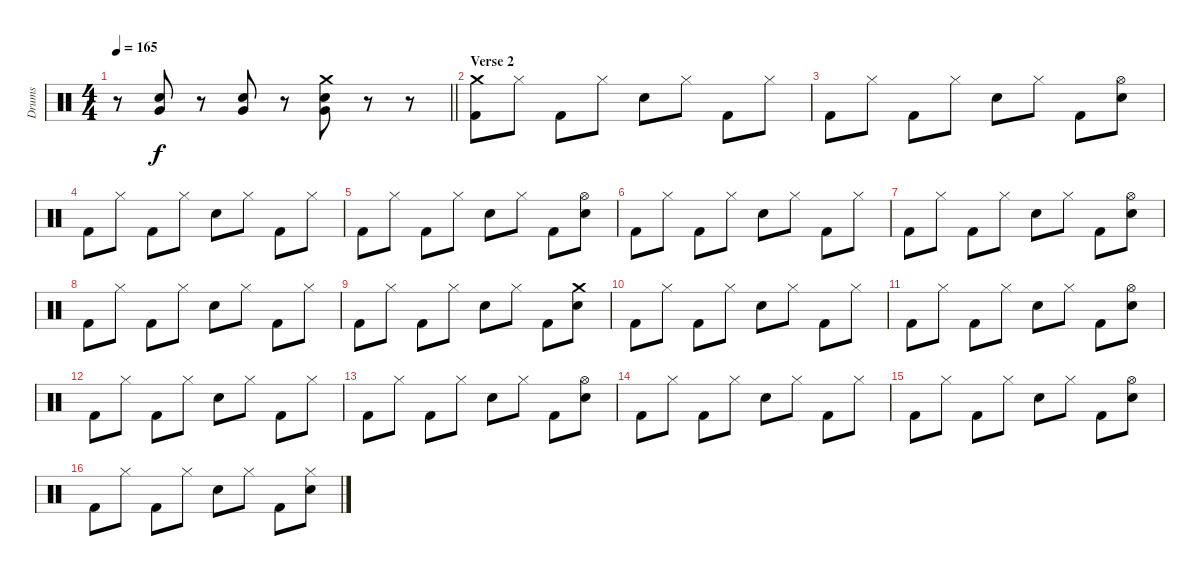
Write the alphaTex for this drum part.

\track ("Drums" "Drums") {instrument percussion}
\staff {score}
\articulation defaults
\ts (4 4)
\tempo 165
\clef neutral
\barLineRight lightlight
\ks c
r.8{dy f} ("Electric Snare (hit)" "Very Low Tom (hit)").8 r.8 ("Electric Snare (hit)" "Very Low Tom (hit)").8 r.8 ("Crash medium (hit)" "Electric Snare (hit)" "Very Low Tom (hit)").8 r.8 r.8 |
\section ("" "Verse 2")
("Crash medium (hit)" "Kick (hit) 2").8 "Hi-Hat (closed)".8 "Kick (hit) 2".8 "Hi-Hat (closed)".8 "Electric Snare (hit)".8 "Hi-Hat (closed)".8 "Kick (hit) 2".8 "Hi-Hat (closed)".8 |
"Kick (hit) 2".8 "Hi-Hat (closed)".8 "Kick (hit) 2".8 "Hi-Hat (closed)".8 "Electric Snare (hit)".8 "Hi-Hat (closed)".8 "Kick (hit) 2".8 ("Hi-Hat (open)" "Electric Snare (hit)").8 |
"Kick (hit) 2".8 "Hi-Hat (closed)".8 "Kick (hit) 2".8 "Hi-Hat (closed)".8 "Electric Snare (hit)".8 "Hi-Hat (closed)".8 "Kick (hit) 2".8 "Hi-Hat (closed)".8 |
"Kick (hit) 2".8 "Hi-Hat (closed)".8 "Kick (hit) 2".8 "Hi-Hat (closed)".8 "Electric Snare (hit)".8 "Hi-Hat (closed)".8 "Kick (hit) 2".8 ("Hi-Hat (open)" "Electric Snare (hit)").8 |
"Kick (hit) 2".8 "Hi-Hat (closed)".8 "Kick (hit) 2".8 "Hi-Hat (closed)".8 "Electric Snare (hit)".8 "Hi-Hat (closed)".8 "Kick (hit) 2".8 "Hi-Hat (closed)".8 |
"Kick (hit) 2".8 "Hi-Hat (closed)".8 "Kick (hit) 2".8 "Hi-Hat (closed)".8 "Electric Snare (hit)".8 "Hi-Hat (closed)".8 "Kick (hit) 2".8 ("Hi-Hat (open)" "Electric Snare (hit)").8 |
"Kick (hit) 2".8 "Hi-Hat (closed)".8 "Kick (hit) 2".8 "Hi-Hat (closed)".8 "Electric Snare (hit)".8 "Hi-Hat (closed)".8 "Kick (hit) 2".8 "Hi-Hat (closed)".8 |
"Kick (hit) 2".8 "Hi-Hat (closed)".8 "Kick (hit) 2".8 "Hi-Hat (closed)".8 "Electric Snare (hit)".8 "Hi-Hat (closed)".8 "Kick (hit) 2".8 ("Crash medium (hit)" "Electric Snare (hit)").8 |
"Kick (hit) 2".8 "Hi-Hat (closed)".8 "Kick (hit) 2".8 "Hi-Hat (closed)".8 "Electric Snare (hit)".8 "Hi-Hat (closed)".8 "Kick (hit) 2".8 "Hi-Hat (closed)".8 |
"Kick (hit) 2".8 "Hi-Hat (closed)".8 "Kick (hit) 2".8 "Hi-Hat (closed)".8 "Electric Snare (hit)".8 "Hi-Hat (closed)".8 "Kick (hit) 2".8 ("Hi-Hat (open)" "Electric Snare (hit)").8 |
"Kick (hit) 2".8 "Hi-Hat (closed)".8 "Kick (hit) 2".8 "Hi-Hat (closed)".8 "Electric Snare (hit)".8 "Hi-Hat (closed)".8 "Kick (hit) 2".8 "Hi-Hat (closed)".8 |
"Kick (hit) 2".8 "Hi-Hat (closed)".8 "Kick (hit) 2".8 "Hi-Hat (closed)".8 "Electric Snare (hit)".8 "Hi-Hat (closed)".8 "Kick (hit) 2".8 ("Hi-Hat (open)" "Electric Snare (hit)").8 |
"Kick (hit) 2".8 "Hi-Hat (closed)".8 "Kick (hit) 2".8 "Hi-Hat (closed)".8 "Electric Snare (hit)".8 "Hi-Hat (closed)".8 "Kick (hit) 2".8 "Hi-Hat (closed)".8 |
"Kick (hit) 2".8 "Hi-Hat (closed)".8 "Kick (hit) 2".8 "Hi-Hat (closed)".8 "Electric Snare (hit)".8 "Hi-Hat (closed)".8 "Kick (hit) 2".8 ("Hi-Hat (open)" "Electric Snare (hit)").8 |
"Kick (hit) 2".8 "Hi-Hat (closed)".8 "Kick (hit) 2".8 "Hi-Hat (closed)".8 "Electric Snare (hit)".8 "Hi-Hat (closed)".8 "Kick (hit) 2".8 ("Hi-Hat (closed)" "Electric Snare (hit)").8
